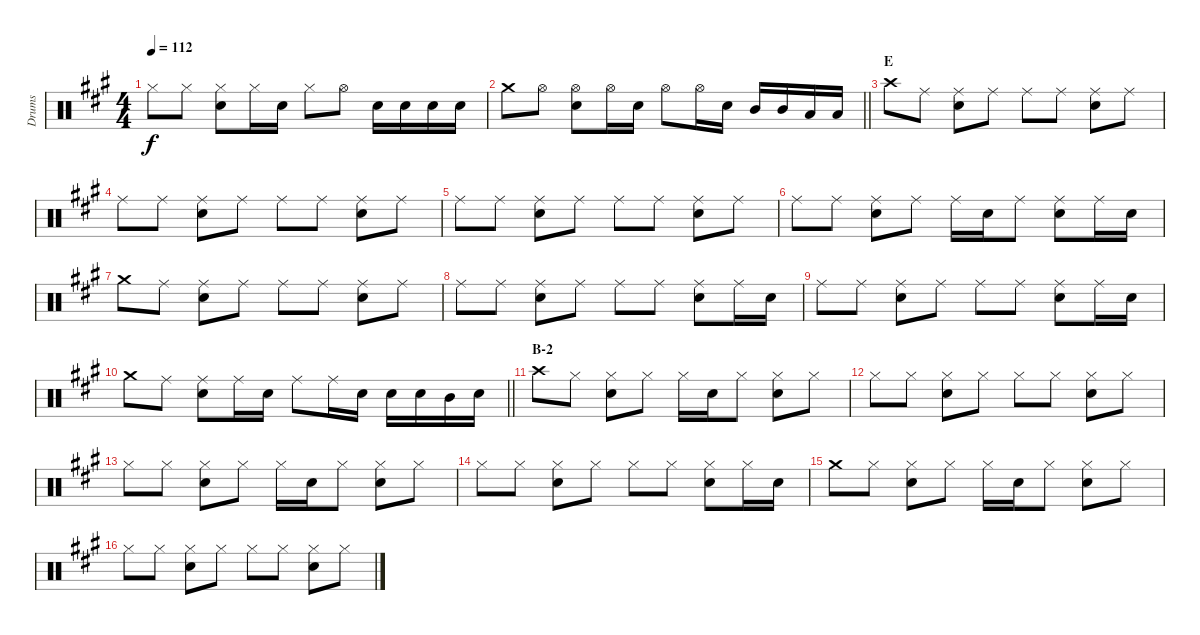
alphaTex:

\track ("Drums" "Drums") {instrument percussion}
\staff {score}
\articulation defaults
\ts (4 4)
\tempo 112
\clef neutral
\ks a "Hi-Hat (closed)".8{dy f} "Hi-Hat (closed)".8
("Hi-Hat (closed)" "Snare (hit) 2").8 "Hi-Hat (closed)".16 "Snare (hit) 2".16 "Hi-Hat (closed)".8 "Hi-Hat (open)".8 "Snare (hit) 2".16 "Snare (hit) 2".16 "Snare (hit) 2".16 "Snare (hit) 2".16 |
\barLineRight lightlight "Crash medium (hit)".8 "Hi-Hat (open)".8
("Hi-Hat (open)" "Snare (hit) 2").8 "Hi-Hat (open)".16 "Snare (hit) 2".16 "Hi-Hat (open)".8 "Hi-Hat (open)".16 "Snare (hit) 2".16 "Mid Tom (hit)".16 "Mid Tom (hit)".16 "Low Tom (hit)".16 "Low Tom (hit)".16 |
\section ("" "E")
"Crash high (hit)".8 "Ride (middle)".8 ("Ride (middle)" "Snare (hit) 2").8 "Ride (middle)".8 "Ride (middle)".8 "Ride (middle)".8 ("Ride (middle)" "Snare (hit) 2").8 "Ride (middle)".8 |
"Ride (middle)".8 "Ride (middle)".8 ("Ride (middle)" "Snare (hit) 2").8 "Ride (middle)".8 "Ride (middle)".8 "Ride (middle)".8 ("Ride (middle)" "Snare (hit) 2").8 "Ride (middle)".8 |
"Ride (middle)".8 "Ride (middle)".8 ("Ride (middle)" "Snare (hit) 2").8 "Ride (middle)".8 "Ride (middle)".8 "Ride (middle)".8 ("Ride (middle)" "Snare (hit) 2").8 "Ride (middle)".8 |
"Ride (middle)".8 "Ride (middle)".8 ("Ride (middle)" "Snare (hit) 2").8 "Ride (middle)".8 "Ride (middle)".16 "Snare (hit) 2".16 "Ride (middle)".8 ("Ride (middle)" "Snare (hit) 2").8 "Ride (middle)".16 "Snare (hit) 2".16 |
"Crash medium (hit)".8 "Ride (middle)".8 ("Ride (middle)" "Snare (hit) 2").8 "Ride (middle)".8 "Ride (middle)".8 "Ride (middle)".8 ("Ride (middle)" "Snare (hit) 2").8 "Ride (middle)".8 |
"Ride (middle)".8 "Ride (middle)".8 ("Ride (middle)" "Snare (hit) 2").8 "Ride (middle)".8 "Ride (middle)".8 "Ride (middle)".8 ("Ride (middle)" "Snare (hit) 2").8 "Ride (middle)".16 "Snare (hit) 2".16 |
"Ride (middle)".8 "Ride (middle)".8 ("Ride (middle)" "Snare (hit) 2").8 "Ride (middle)".8 "Ride (middle)".8 "Ride (middle)".8 ("Ride (middle)" "Snare (hit) 2").8 "Ride (middle)".16 "Snare (hit) 2".16 |
\barLineRight lightlight "Crash medium (hit)".8 "Ride (middle)".8
("Ride (middle)" "Snare (hit) 2").8 "Ride (middle)".16 "Snare (hit) 2".16 "Ride (middle)".8 "Ride (middle)".16 "Snare (hit) 2".16 "Snare (hit) 2".16 "Snare (hit) 2".16 "Mid Tom (hit)".16 "Snare (hit) 2".16 |
\section ("" "B-2")
"Crash high (hit)".8 "Hi-Hat (closed)".8 ("Hi-Hat (closed)" "Snare (hit) 2").8 "Hi-Hat (closed)".8 "Hi-Hat (closed)".16 "Snare (hit) 2".16 "Hi-Hat (closed)".8 ("Hi-Hat (closed)" "Snare (hit) 2").8 "Hi-Hat (closed)".8 |
"Hi-Hat (closed)".8 "Hi-Hat (closed)".8 ("Hi-Hat (closed)" "Snare (hit) 2").8 "Hi-Hat (closed)".8 "Hi-Hat (closed)".8 "Hi-Hat (closed)".8 ("Hi-Hat (closed)" "Snare (hit) 2").8 "Hi-Hat (closed)".8 |
"Hi-Hat (closed)".8 "Hi-Hat (closed)".8 ("Hi-Hat (closed)" "Snare (hit) 2").8 "Hi-Hat (closed)".8 "Hi-Hat (closed)".16 "Snare (hit) 2".16 "Hi-Hat (closed)".8 ("Hi-Hat (closed)" "Snare (hit) 2").8 "Hi-Hat (closed)".8 |
"Hi-Hat (closed)".8 "Hi-Hat (closed)".8 ("Hi-Hat (closed)" "Snare (hit) 2").8 "Hi-Hat (closed)".8 "Hi-Hat (closed)".8 "Hi-Hat (closed)".8 ("Hi-Hat (closed)" "Snare (hit) 2").8 "Hi-Hat (closed)".16 "Snare (hit) 2".16 |
"Crash medium (hit)".8 "Hi-Hat (closed)".8 ("Hi-Hat (closed)" "Snare (hit) 2").8 "Hi-Hat (closed)".8 "Hi-Hat (closed)".16 "Snare (hit) 2".16 "Hi-Hat (closed)".8 ("Hi-Hat (closed)" "Snare (hit) 2").8 "Hi-Hat (closed)".8 |
"Hi-Hat (closed)".8 "Hi-Hat (closed)".8 ("Hi-Hat (closed)" "Snare (hit) 2").8 "Hi-Hat (closed)".8 "Hi-Hat (closed)".8 "Hi-Hat (closed)".8 ("Hi-Hat (closed)" "Snare (hit) 2").8 "Hi-Hat (closed)".8
